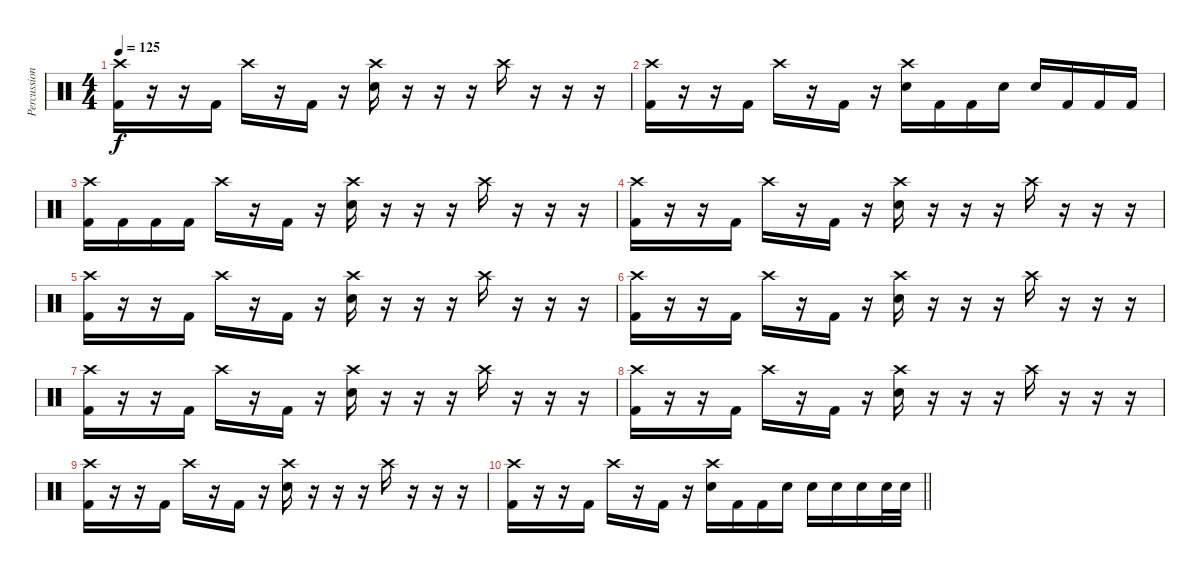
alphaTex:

\track ("Percussion" "Percussion") {instrument percussion}
\staff {score}
\articulation defaults
\ts (4 4)
\tempo 125
\clef neutral
\ks c
("Crash high (hit)" "Kick (hit) 2").16{dy f} r.16 r.16 "Kick (hit) 2".16 "Crash high (hit)".16 r.16 "Kick (hit) 2".16 r.16 ("Crash high (hit)" "Snare (hit) 2").16 r.16 r.16 r.16 "Crash high (hit)".16 r.16 r.16 r.16 |
("Crash high (hit)" "Kick (hit) 2").16 r.16 r.16 "Kick (hit) 2".16 "Crash high (hit)".16 r.16 "Kick (hit) 2".16 r.16 ("Crash high (hit)" "Snare (hit) 2").16 "Kick (hit) 2".16 "Kick (hit) 2".16 "Snare (hit) 2".16 "Snare (hit) 2".16 "Kick (hit) 2".16 "Kick (hit) 2".16 "Kick (hit) 2".16 |
("Crash high (hit)" "Kick (hit) 2").16 "Kick (hit) 2".16 "Kick (hit) 2".16 "Kick (hit) 2".16 "Crash high (hit)".16 r.16 "Kick (hit) 2".16 r.16 ("Crash high (hit)" "Snare (hit) 2").16 r.16 r.16 r.16 "Crash high (hit)".16 r.16 r.16 r.16 |
("Crash high (hit)" "Kick (hit) 2").16 r.16 r.16 "Kick (hit) 2".16 "Crash high (hit)".16 r.16 "Kick (hit) 2".16 r.16 ("Crash high (hit)" "Snare (hit) 2").16 r.16 r.16 r.16 "Crash high (hit)".16 r.16 r.16 r.16 |
("Crash high (hit)" "Kick (hit) 2").16 r.16 r.16 "Kick (hit) 2".16 "Crash high (hit)".16 r.16 "Kick (hit) 2".16 r.16 ("Crash high (hit)" "Snare (hit) 2").16 r.16 r.16 r.16 "Crash high (hit)".16 r.16 r.16 r.16 |
("Crash high (hit)" "Kick (hit) 2").16 r.16 r.16 "Kick (hit) 2".16 "Crash high (hit)".16 r.16 "Kick (hit) 2".16 r.16 ("Crash high (hit)" "Snare (hit) 2").16 r.16 r.16 r.16 "Crash high (hit)".16 r.16 r.16 r.16 |
("Crash high (hit)" "Kick (hit) 2").16 r.16 r.16 "Kick (hit) 2".16 "Crash high (hit)".16 r.16 "Kick (hit) 2".16 r.16 ("Crash high (hit)" "Snare (hit) 2").16 r.16 r.16 r.16 "Crash high (hit)".16 r.16 r.16 r.16 |
("Crash high (hit)" "Kick (hit) 2").16 r.16 r.16 "Kick (hit) 2".16 "Crash high (hit)".16 r.16 "Kick (hit) 2".16 r.16 ("Crash high (hit)" "Snare (hit) 2").16 r.16 r.16 r.16 "Crash high (hit)".16 r.16 r.16 r.16 |
("Crash high (hit)" "Kick (hit) 2").16 r.16 r.16 "Kick (hit) 2".16 "Crash high (hit)".16 r.16 "Kick (hit) 2".16 r.16 ("Crash high (hit)" "Snare (hit) 2").16 r.16 r.16 r.16 "Crash high (hit)".16 r.16 r.16 r.16 |
\barLineRight lightlight
("Crash high (hit)" "Kick (hit) 2").16 r.16 r.16 "Kick (hit) 2".16 "Crash high (hit)".16 r.16 "Kick (hit) 2".16 r.16 ("Crash high (hit)" "Snare (hit) 2").16 "Kick (hit) 2".16 "Kick (hit) 2".16 "Snare (hit) 2".16 "Snare (hit) 2".16 "Snare (hit) 2".16 "Snare (hit) 2".16 "Snare (hit) 2".32 "Snare (hit) 2".32
